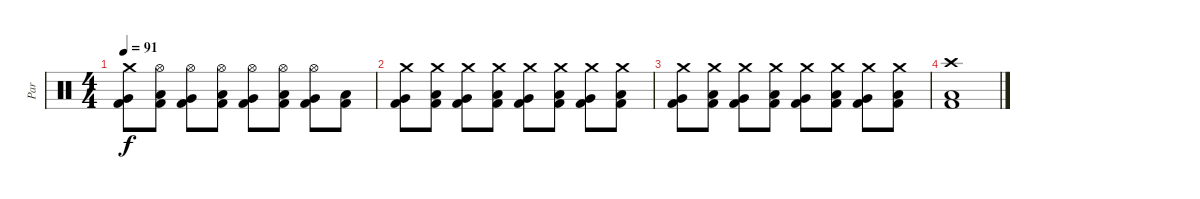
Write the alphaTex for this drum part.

\track ("Par" "Par") {instrument percussion}
\staff {score}
\articulation defaults
\ts (4 4)
\tempo 91
\clef neutral
\ks c
("Crash medium (hit)" "Very Low Tom (hit)" "Kick (hit) 2").8{dy f} ("Hi-Hat (open)" "Low Floor Tom (hit)" "Kick (hit) 2").8 ("Hi-Hat (open)" "Very Low Tom (hit)" "Kick (hit) 2").8 ("Hi-Hat (open)" "Low Floor Tom (hit)" "Kick (hit) 2").8 ("Hi-Hat (open)" "Very Low Tom (hit)" "Kick (hit) 2").8 ("Hi-Hat (open)" "Low Floor Tom (hit)" "Kick (hit) 2").8 ("Hi-Hat (open)" "Very Low Tom (hit)" "Kick (hit) 2").8 ("Low Floor Tom (hit)" "Kick (hit) 2").8 |
("Crash medium (hit)" "Very Low Tom (hit)" "Kick (hit) 2").8 ("Crash medium (hit)" "Low Floor Tom (hit)" "Kick (hit) 2").8 ("Crash medium (hit)" "Very Low Tom (hit)" "Kick (hit) 2").8 ("Crash medium (hit)" "Low Floor Tom (hit)" "Kick (hit) 2").8 ("Crash medium (hit)" "Very Low Tom (hit)" "Kick (hit) 2").8 ("Crash medium (hit)" "Low Floor Tom (hit)" "Kick (hit) 2").8 ("Crash medium (hit)" "Very Low Tom (hit)" "Kick (hit) 2").8 ("Crash medium (hit)" "Low Floor Tom (hit)" "Kick (hit) 2").8 |
("Crash medium (hit)" "Very Low Tom (hit)" "Kick (hit) 2").8 ("Crash medium (hit)" "Low Floor Tom (hit)" "Kick (hit) 2").8 ("Crash medium (hit)" "Very Low Tom (hit)" "Kick (hit) 2").8 ("Crash medium (hit)" "Low Floor Tom (hit)" "Kick (hit) 2").8 ("Crash medium (hit)" "Very Low Tom (hit)" "Kick (hit) 2").8 ("Crash medium (hit)" "Low Floor Tom (hit)" "Kick (hit) 2").8 ("Crash medium (hit)" "Very Low Tom (hit)" "Kick (hit) 2").8 ("Crash medium (hit)" "Low Floor Tom (hit)" "Kick (hit) 2").8 |
("Crash high (hit)" "Low Floor Tom (hit)" "Kick (hit) 2").1
